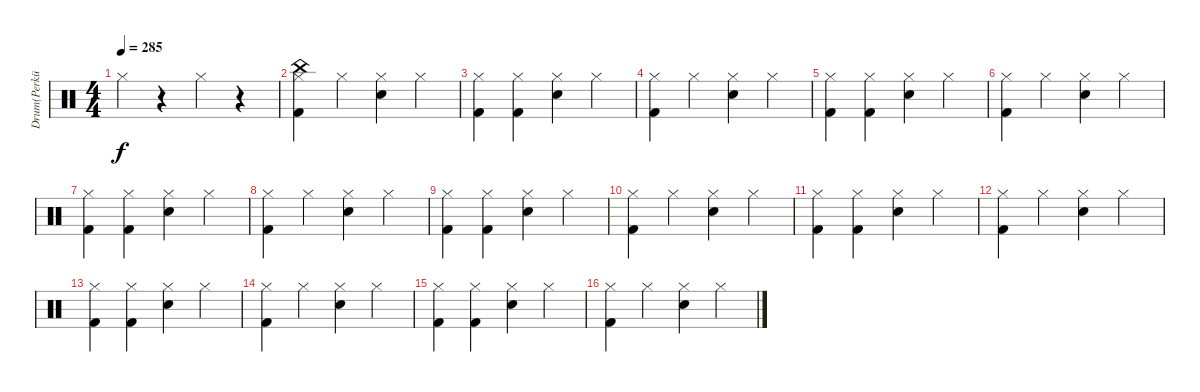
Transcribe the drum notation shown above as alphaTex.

\track ("Drum(Perküsyon)" "Drum(Perkü") {instrument percussion}
\staff {score}
\articulation defaults
\ts (4 4)
\tempo 285
\clef neutral
\ks c "Hi-Hat (closed)".4{dy f}
r.4 "Hi-Hat (closed)".4 r.4 |
("Hi-Hat (closed)" "Kick (hit) 2" "China (hit)").4 "Hi-Hat (closed)".4 ("Hi-Hat (closed)" "Electric Snare (hit)").4 "Hi-Hat (closed)".4 |
("Hi-Hat (closed)" "Kick (hit) 2").4 ("Hi-Hat (closed)" "Kick (hit) 2").4 ("Hi-Hat (closed)" "Electric Snare (hit)").4 "Hi-Hat (closed)".4 |
("Hi-Hat (closed)" "Kick (hit) 2").4 "Hi-Hat (closed)".4 ("Hi-Hat (closed)" "Electric Snare (hit)").4 "Hi-Hat (closed)".4 |
("Hi-Hat (closed)" "Kick (hit) 2").4 ("Hi-Hat (closed)" "Kick (hit) 2").4 ("Hi-Hat (closed)" "Electric Snare (hit)").4 "Hi-Hat (closed)".4 |
("Hi-Hat (closed)" "Kick (hit) 2").4 "Hi-Hat (closed)".4 ("Hi-Hat (closed)" "Electric Snare (hit)").4 "Hi-Hat (closed)".4 |
("Hi-Hat (closed)" "Kick (hit) 2").4 ("Hi-Hat (closed)" "Kick (hit) 2").4 ("Hi-Hat (closed)" "Electric Snare (hit)").4 "Hi-Hat (closed)".4 |
("Hi-Hat (closed)" "Kick (hit) 2").4 "Hi-Hat (closed)".4 ("Hi-Hat (closed)" "Electric Snare (hit)").4 "Hi-Hat (closed)".4 |
("Hi-Hat (closed)" "Kick (hit) 2").4 ("Hi-Hat (closed)" "Kick (hit) 2").4 ("Hi-Hat (closed)" "Electric Snare (hit)").4 "Hi-Hat (closed)".4 |
("Hi-Hat (closed)" "Kick (hit) 2").4 "Hi-Hat (closed)".4 ("Hi-Hat (closed)" "Electric Snare (hit)").4 "Hi-Hat (closed)".4 |
("Hi-Hat (closed)" "Kick (hit) 2").4 ("Hi-Hat (closed)" "Kick (hit) 2").4 ("Hi-Hat (closed)" "Electric Snare (hit)").4 "Hi-Hat (closed)".4 |
("Hi-Hat (closed)" "Kick (hit) 2").4 "Hi-Hat (closed)".4 ("Hi-Hat (closed)" "Electric Snare (hit)").4 "Hi-Hat (closed)".4 |
("Hi-Hat (closed)" "Kick (hit) 2").4 ("Hi-Hat (closed)" "Kick (hit) 2").4 ("Hi-Hat (closed)" "Electric Snare (hit)").4 "Hi-Hat (closed)".4 |
("Hi-Hat (closed)" "Kick (hit) 2").4 "Hi-Hat (closed)".4 ("Hi-Hat (closed)" "Electric Snare (hit)").4 "Hi-Hat (closed)".4 |
("Hi-Hat (closed)" "Kick (hit) 2").4 ("Hi-Hat (closed)" "Kick (hit) 2").4 ("Hi-Hat (closed)" "Electric Snare (hit)").4 "Hi-Hat (closed)".4 |
("Hi-Hat (closed)" "Kick (hit) 2").4 "Hi-Hat (closed)".4 ("Hi-Hat (closed)" "Electric Snare (hit)").4 "Hi-Hat (closed)".4
